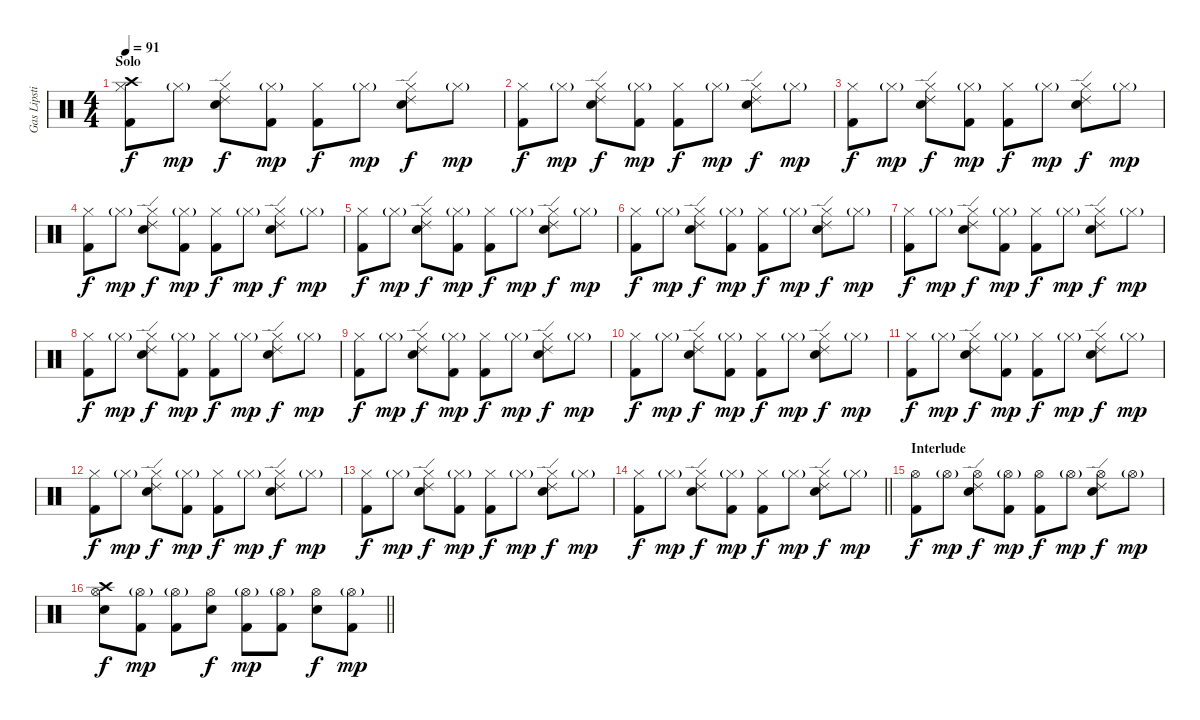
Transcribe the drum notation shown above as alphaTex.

\track ("Gas Lipstick (Drums)" "Gas Lipsti") {instrument percussion}
\staff {score}
\articulation defaults
\ts (4 4)
\section ("" "Solo")
\tempo 91
\clef neutral
\ks c
("Crash high (hit)" "Hi-Hat (closed)" "Kick (hit) 2").8{dy f} "Hi-Hat (closed)"{g}.8{dy mp} ("Ride (edge) 2" "Hi-Hat (closed)" "Snare (hit) 2").8{dy f} ("Hi-Hat (closed)"{g} "Kick (hit) 2").8{dy mp} ("Hi-Hat (closed)" "Kick (hit) 2").8{dy f} "Hi-Hat (closed)"{g}.8{dy mp} ("Ride (edge) 2" "Hi-Hat (closed)" "Snare (hit) 2").8{dy f} "Hi-Hat (closed)"{g}.8{dy mp} |
("Hi-Hat (closed)" "Kick (hit) 2").8{dy f} "Hi-Hat (closed)"{g}.8{dy mp} ("Ride (edge) 2" "Hi-Hat (closed)" "Snare (hit) 2").8{dy f} ("Hi-Hat (closed)"{g} "Kick (hit) 2").8{dy mp} ("Hi-Hat (closed)" "Kick (hit) 2").8{dy f} "Hi-Hat (closed)"{g}.8{dy mp} ("Ride (edge) 2" "Hi-Hat (closed)" "Snare (hit) 2").8{dy f} "Hi-Hat (closed)"{g}.8{dy mp} |
("Hi-Hat (closed)" "Kick (hit) 2").8{dy f} "Hi-Hat (closed)"{g}.8{dy mp} ("Ride (edge) 2" "Hi-Hat (closed)" "Snare (hit) 2").8{dy f} ("Hi-Hat (closed)"{g} "Kick (hit) 2").8{dy mp} ("Hi-Hat (closed)" "Kick (hit) 2").8{dy f} "Hi-Hat (closed)"{g}.8{dy mp} ("Ride (edge) 2" "Hi-Hat (closed)" "Snare (hit) 2").8{dy f} "Hi-Hat (closed)"{g}.8{dy mp} |
("Hi-Hat (closed)" "Kick (hit) 2").8{dy f} "Hi-Hat (closed)"{g}.8{dy mp} ("Ride (edge) 2" "Hi-Hat (closed)" "Snare (hit) 2").8{dy f} ("Hi-Hat (closed)"{g} "Kick (hit) 2").8{dy mp} ("Hi-Hat (closed)" "Kick (hit) 2").8{dy f} "Hi-Hat (closed)"{g}.8{dy mp} ("Ride (edge) 2" "Hi-Hat (closed)" "Snare (hit) 2").8{dy f} "Hi-Hat (closed)"{g}.8{dy mp} |
("Hi-Hat (closed)" "Kick (hit) 2").8{dy f} "Hi-Hat (closed)"{g}.8{dy mp} ("Ride (edge) 2" "Hi-Hat (closed)" "Snare (hit) 2").8{dy f} ("Hi-Hat (closed)"{g} "Kick (hit) 2").8{dy mp} ("Hi-Hat (closed)" "Kick (hit) 2").8{dy f} "Hi-Hat (closed)"{g}.8{dy mp} ("Ride (edge) 2" "Hi-Hat (closed)" "Snare (hit) 2").8{dy f} "Hi-Hat (closed)"{g}.8{dy mp} |
("Hi-Hat (closed)" "Kick (hit) 2").8{dy f} "Hi-Hat (closed)"{g}.8{dy mp} ("Ride (edge) 2" "Hi-Hat (closed)" "Snare (hit) 2").8{dy f} ("Hi-Hat (closed)"{g} "Kick (hit) 2").8{dy mp} ("Hi-Hat (closed)" "Kick (hit) 2").8{dy f} "Hi-Hat (closed)"{g}.8{dy mp} ("Ride (edge) 2" "Hi-Hat (closed)" "Snare (hit) 2").8{dy f} "Hi-Hat (closed)"{g}.8{dy mp} |
("Hi-Hat (closed)" "Kick (hit) 2").8{dy f} "Hi-Hat (closed)"{g}.8{dy mp} ("Ride (edge) 2" "Hi-Hat (closed)" "Snare (hit) 2").8{dy f} ("Hi-Hat (closed)"{g} "Kick (hit) 2").8{dy mp} ("Hi-Hat (closed)" "Kick (hit) 2").8{dy f} "Hi-Hat (closed)"{g}.8{dy mp} ("Ride (edge) 2" "Hi-Hat (closed)" "Snare (hit) 2").8{dy f} "Hi-Hat (closed)"{g}.8{dy mp} |
("Hi-Hat (closed)" "Kick (hit) 2").8{dy f} "Hi-Hat (closed)"{g}.8{dy mp} ("Ride (edge) 2" "Hi-Hat (closed)" "Snare (hit) 2").8{dy f} ("Hi-Hat (closed)"{g} "Kick (hit) 2").8{dy mp} ("Hi-Hat (closed)" "Kick (hit) 2").8{dy f} "Hi-Hat (closed)"{g}.8{dy mp} ("Ride (edge) 2" "Hi-Hat (closed)" "Snare (hit) 2").8{dy f} "Hi-Hat (closed)"{g}.8{dy mp} |
("Hi-Hat (closed)" "Kick (hit) 2").8{dy f} "Hi-Hat (closed)"{g}.8{dy mp} ("Ride (edge) 2" "Hi-Hat (closed)" "Snare (hit) 2").8{dy f} ("Hi-Hat (closed)"{g} "Kick (hit) 2").8{dy mp} ("Hi-Hat (closed)" "Kick (hit) 2").8{dy f} "Hi-Hat (closed)"{g}.8{dy mp} ("Ride (edge) 2" "Hi-Hat (closed)" "Snare (hit) 2").8{dy f} "Hi-Hat (closed)"{g}.8{dy mp} |
("Hi-Hat (closed)" "Kick (hit) 2").8{dy f} "Hi-Hat (closed)"{g}.8{dy mp} ("Ride (edge) 2" "Hi-Hat (closed)" "Snare (hit) 2").8{dy f} ("Hi-Hat (closed)"{g} "Kick (hit) 2").8{dy mp} ("Hi-Hat (closed)" "Kick (hit) 2").8{dy f} "Hi-Hat (closed)"{g}.8{dy mp} ("Ride (edge) 2" "Hi-Hat (closed)" "Snare (hit) 2").8{dy f} "Hi-Hat (closed)"{g}.8{dy mp} |
("Hi-Hat (closed)" "Kick (hit) 2").8{dy f} "Hi-Hat (closed)"{g}.8{dy mp} ("Ride (edge) 2" "Hi-Hat (closed)" "Snare (hit) 2").8{dy f} ("Hi-Hat (closed)"{g} "Kick (hit) 2").8{dy mp} ("Hi-Hat (closed)" "Kick (hit) 2").8{dy f} "Hi-Hat (closed)"{g}.8{dy mp} ("Ride (edge) 2" "Hi-Hat (closed)" "Snare (hit) 2").8{dy f} "Hi-Hat (closed)"{g}.8{dy mp} |
("Hi-Hat (closed)" "Kick (hit) 2").8{dy f} "Hi-Hat (closed)"{g}.8{dy mp} ("Ride (edge) 2" "Hi-Hat (closed)" "Snare (hit) 2").8{dy f} ("Hi-Hat (closed)"{g} "Kick (hit) 2").8{dy mp} ("Hi-Hat (closed)" "Kick (hit) 2").8{dy f} "Hi-Hat (closed)"{g}.8{dy mp} ("Ride (edge) 2" "Hi-Hat (closed)" "Snare (hit) 2").8{dy f} "Hi-Hat (closed)"{g}.8{dy mp} |
("Hi-Hat (closed)" "Kick (hit) 2").8{dy f} "Hi-Hat (closed)"{g}.8{dy mp} ("Ride (edge) 2" "Hi-Hat (closed)" "Snare (hit) 2").8{dy f} ("Hi-Hat (closed)"{g} "Kick (hit) 2").8{dy mp} ("Hi-Hat (closed)" "Kick (hit) 2").8{dy f} "Hi-Hat (closed)"{g}.8{dy mp} ("Ride (edge) 2" "Hi-Hat (closed)" "Snare (hit) 2").8{dy f} "Hi-Hat (closed)"{g}.8{dy mp} |
\barLineRight lightlight
("Hi-Hat (closed)" "Kick (hit) 2").8{dy f} "Hi-Hat (closed)"{g}.8{dy mp} ("Ride (edge) 2" "Hi-Hat (closed)" "Snare (hit) 2").8{dy f} ("Hi-Hat (closed)"{g} "Kick (hit) 2").8{dy mp} ("Hi-Hat (closed)" "Kick (hit) 2").8{dy f} "Hi-Hat (closed)"{g}.8{dy mp} ("Ride (edge) 2" "Hi-Hat (closed)" "Snare (hit) 2").8{dy f} "Hi-Hat (closed)"{g}.8{dy mp} |
\section ("" "Interlude")
("Hi-Hat (open)" "Kick (hit) 2").8{dy f} "Hi-Hat (open)"{g}.8{dy mp} ("Ride (edge) 2" "Hi-Hat (open)" "Snare (hit) 2").8{dy f} ("Hi-Hat (open)"{g} "Kick (hit) 2").8{dy mp} ("Hi-Hat (open)" "Kick (hit) 2").8{dy f} "Hi-Hat (open)"{g}.8{dy mp} ("Ride (edge) 2" "Hi-Hat (open)" "Snare (hit) 2").8{dy f} "Hi-Hat (open)"{g}.8{dy mp} |
\barLineRight lightlight
("Crash high (hit)" "Hi-Hat (open)" "Snare (hit) 2").8{dy f} ("Hi-Hat (open)"{g} "Kick (hit) 2").8{dy mp} ("Hi-Hat (open)"{g} "Kick (hit) 2").8 ("Hi-Hat (open)" "Snare (hit) 2").8{dy f} ("Hi-Hat (open)"{g} "Kick (hit) 2").8{dy mp} ("Hi-Hat (open)"{g} "Kick (hit) 2").8 ("Hi-Hat (open)" "Snare (hit) 2").8{dy f} ("Hi-Hat (open)"{g} "Kick (hit) 2").8{dy mp}
